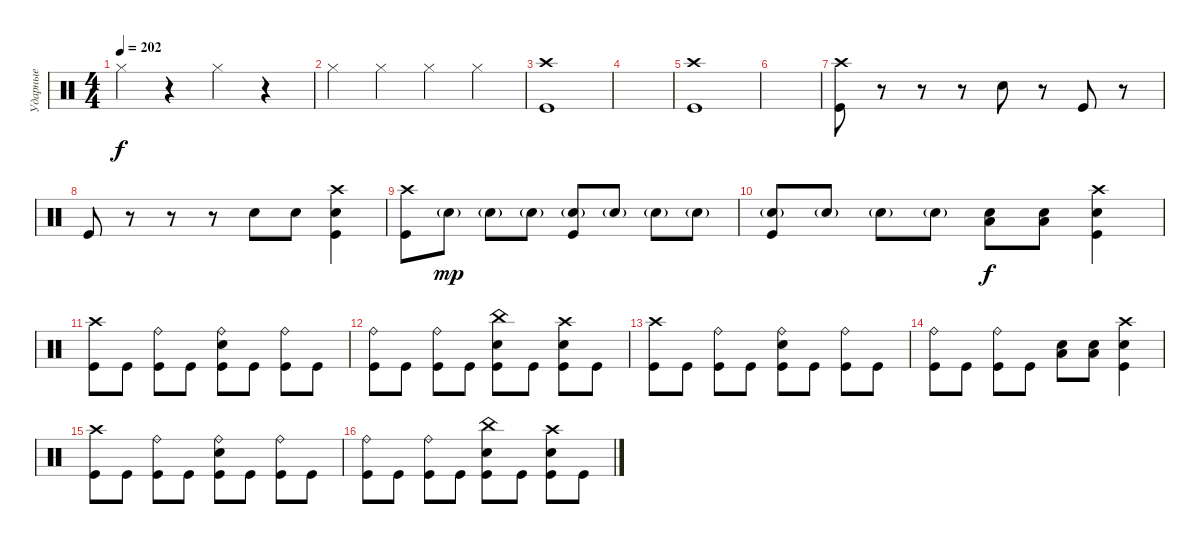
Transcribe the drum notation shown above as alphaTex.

\track ("Ударные" "Ударные") {instrument percussion}
\staff {score}
\articulation defaults
\ts (4 4)
\tempo 202
\clef neutral
\ks c "Hi-Hat (closed)".4{dy f}
r.4 "Hi-Hat (closed)".4 r.4 |
"Hi-Hat (closed)".4 "Hi-Hat (closed)".4 "Hi-Hat (closed)".4 "Hi-Hat (closed)".4 |
("Crash high (hit)" "Kick (hit)").1 |
|
("Crash high (hit)" "Kick (hit)").1 |
|
("Crash high (hit)" "Kick (hit)").8 r.8 r.8 r.8 "Electric Snare (hit)".8 r.8 "Kick (hit)".8 r.8 |
"Kick (hit)".8 r.8 r.8 r.8 "Electric Snare (hit)".8 "Electric Snare (hit)".8 ("Crash high (hit)" "Electric Snare (hit)" "Kick (hit)").4 |
("Crash high (hit)" "Kick (hit)").8 "Electric Snare (hit)"{g}.8{dy mp} "Electric Snare (hit)"{g}.8 "Electric Snare (hit)"{g}.8 ("Electric Snare (hit)"{g} "Kick (hit)").8 "Electric Snare (hit)"{g}.8 "Electric Snare (hit)"{g}.8 "Electric Snare (hit)"{g}.8 |
("Electric Snare (hit)"{g} "Kick (hit)").8 "Electric Snare (hit)"{g}.8 "Electric Snare (hit)"{g}.8 "Electric Snare (hit)"{g}.8 ("Low Tom (hit)" "Electric Snare (hit)").8{dy f} ("Low Tom (hit)" "Electric Snare (hit)").8 ("Crash high (hit)" "Electric Snare (hit)" "Kick (hit)").4 |
("Crash high (hit)" "Kick (hit)").8 "Kick (hit)".8 ("Ride (bell)" "Kick (hit)").8 "Kick (hit)".8 ("Ride (bell)" "Electric Snare (hit)" "Kick (hit)").8 "Kick (hit)".8 ("Ride (bell)" "Kick (hit)").8 "Kick (hit)".8 |
("Ride (bell)" "Kick (hit)").8 "Kick (hit)".8 ("Ride (bell)" "Kick (hit)").8 "Kick (hit)".8 ("China (hit)" "Electric Snare (hit)" "Kick (hit)").8 "Kick (hit)".8 ("Crash high (hit)" "Electric Snare (hit)" "Kick (hit)").8 "Kick (hit)".8 |
("Crash high (hit)" "Kick (hit)").8 "Kick (hit)".8 ("Ride (bell)" "Kick (hit)").8 "Kick (hit)".8 ("Ride (bell)" "Electric Snare (hit)" "Kick (hit)").8 "Kick (hit)".8 ("Ride (bell)" "Kick (hit)").8 "Kick (hit)".8 |
("Ride (bell)" "Kick (hit)").8 "Kick (hit)".8 ("Ride (bell)" "Kick (hit)").8 "Kick (hit)".8 ("Low Tom (hit)" "Electric Snare (hit)").8 ("Low Tom (hit)" "Electric Snare (hit)").8 ("Crash high (hit)" "Electric Snare (hit)" "Kick (hit)").4 |
("Crash high (hit)" "Kick (hit)").8 "Kick (hit)".8 ("Ride (bell)" "Kick (hit)").8 "Kick (hit)".8 ("Ride (bell)" "Electric Snare (hit)" "Kick (hit)").8 "Kick (hit)".8 ("Ride (bell)" "Kick (hit)").8 "Kick (hit)".8 |
("Ride (bell)" "Kick (hit)").8 "Kick (hit)".8 ("Ride (bell)" "Kick (hit)").8 "Kick (hit)".8 ("China (hit)" "Electric Snare (hit)" "Kick (hit)").8 "Kick (hit)".8 ("Crash high (hit)" "Electric Snare (hit)" "Kick (hit)").8 "Kick (hit)".8
